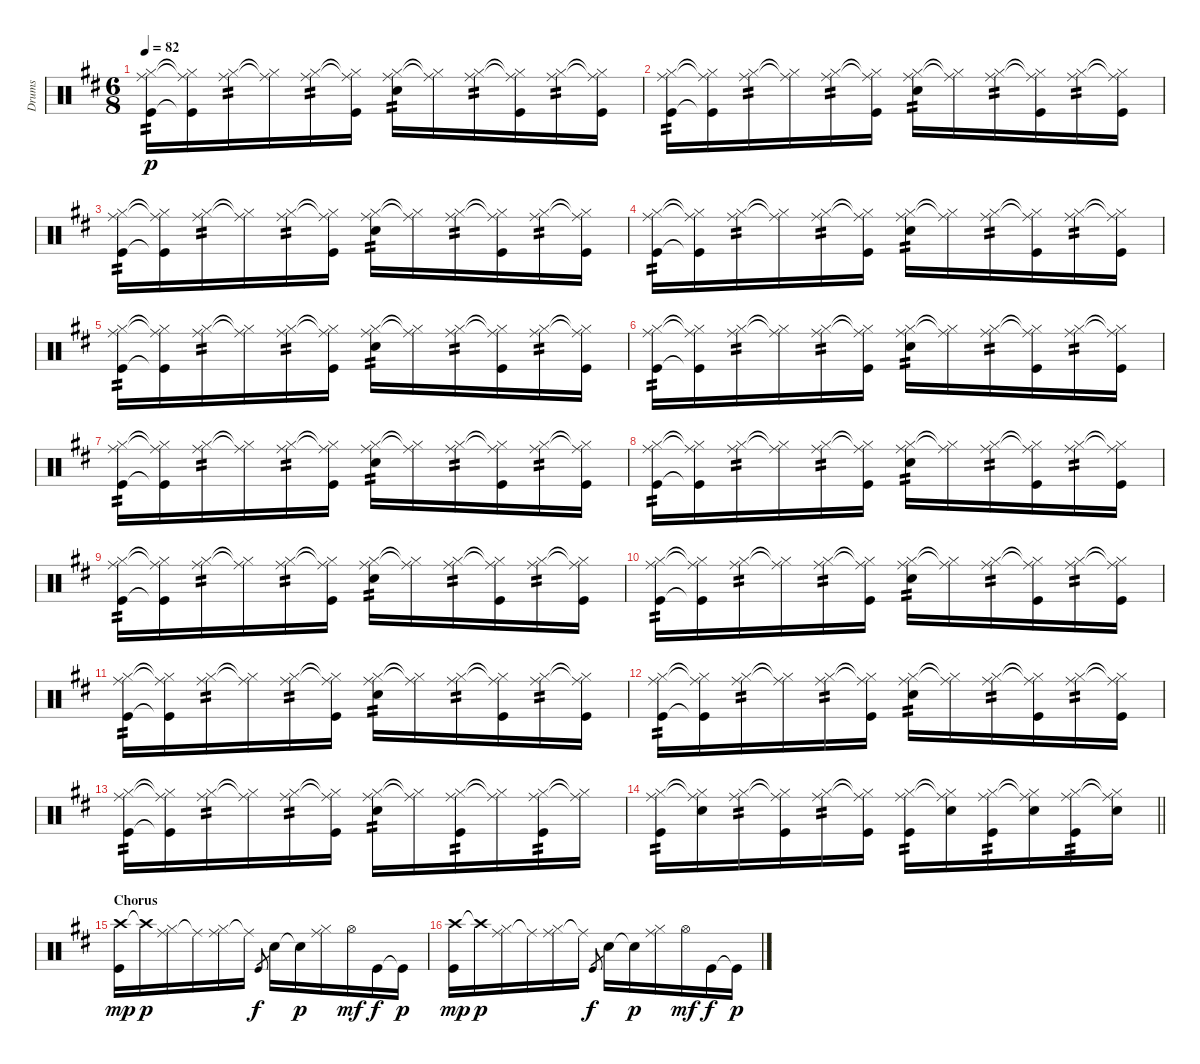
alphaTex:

\track ("Drums" "Drums") {instrument percussion}
\staff {score}
\articulation defaults
\ts (6 8)
\tempo 82
\clef neutral
\ks d
("Ride (middle)" "Hi-Hat (closed)" "Kick (hit)").16{tp 2 dy p} ("Ride (middle)"{t} "Hi-Hat (closed)"{t} "Kick (hit)"{t}).16 ("Ride (middle)" "Hi-Hat (closed)").16{tp 2} ("Ride (middle)"{t} "Hi-Hat (closed)"{t}).16 ("Ride (middle)" "Hi-Hat (closed)").16{tp 2} ("Ride (middle)"{t} "Hi-Hat (closed)"{t} "Kick (hit)").16 ("Ride (middle)" "Hi-Hat (closed)" "Electric Snare (hit)").16{tp 2} ("Ride (middle)"{t} "Hi-Hat (closed)"{t}).16 ("Ride (middle)" "Hi-Hat (closed)").16{tp 2} ("Ride (middle)"{t} "Hi-Hat (closed)"{t} "Kick (hit)").16 ("Ride (middle)" "Hi-Hat (closed)").16{tp 2} ("Ride (middle)"{t} "Hi-Hat (closed)"{t} "Kick (hit)").16 |
("Ride (middle)" "Hi-Hat (closed)" "Kick (hit)").16{tp 2} ("Ride (middle)"{t} "Hi-Hat (closed)"{t} "Kick (hit)"{t}).16 ("Ride (middle)" "Hi-Hat (closed)").16{tp 2} ("Ride (middle)"{t} "Hi-Hat (closed)"{t}).16 ("Ride (middle)" "Hi-Hat (closed)").16{tp 2} ("Ride (middle)"{t} "Hi-Hat (closed)"{t} "Kick (hit)").16 ("Ride (middle)" "Hi-Hat (closed)" "Electric Snare (hit)").16{tp 2} ("Ride (middle)"{t} "Hi-Hat (closed)"{t}).16 ("Ride (middle)" "Hi-Hat (closed)").16{tp 2} ("Ride (middle)"{t} "Hi-Hat (closed)"{t} "Kick (hit)").16 ("Ride (middle)" "Hi-Hat (closed)").16{tp 2} ("Ride (middle)"{t} "Hi-Hat (closed)"{t} "Kick (hit)").16 |
("Ride (middle)" "Hi-Hat (closed)" "Kick (hit)").16{tp 2} ("Ride (middle)"{t} "Hi-Hat (closed)"{t} "Kick (hit)"{t}).16 ("Ride (middle)" "Hi-Hat (closed)").16{tp 2} ("Ride (middle)"{t} "Hi-Hat (closed)"{t}).16 ("Ride (middle)" "Hi-Hat (closed)").16{tp 2} ("Ride (middle)"{t} "Hi-Hat (closed)"{t} "Kick (hit)").16 ("Ride (middle)" "Hi-Hat (closed)" "Electric Snare (hit)").16{tp 2} ("Ride (middle)"{t} "Hi-Hat (closed)"{t}).16 ("Ride (middle)" "Hi-Hat (closed)").16{tp 2} ("Ride (middle)"{t} "Hi-Hat (closed)"{t} "Kick (hit)").16 ("Ride (middle)" "Hi-Hat (closed)").16{tp 2} ("Ride (middle)"{t} "Hi-Hat (closed)"{t} "Kick (hit)").16 |
("Ride (middle)" "Hi-Hat (closed)" "Kick (hit)").16{tp 2} ("Ride (middle)"{t} "Hi-Hat (closed)"{t} "Kick (hit)"{t}).16 ("Ride (middle)" "Hi-Hat (closed)").16{tp 2} ("Ride (middle)"{t} "Hi-Hat (closed)"{t}).16 ("Ride (middle)" "Hi-Hat (closed)").16{tp 2} ("Ride (middle)"{t} "Hi-Hat (closed)"{t} "Kick (hit)").16 ("Ride (middle)" "Hi-Hat (closed)" "Electric Snare (hit)").16{tp 2} ("Ride (middle)"{t} "Hi-Hat (closed)"{t}).16 ("Ride (middle)" "Hi-Hat (closed)").16{tp 2} ("Ride (middle)"{t} "Hi-Hat (closed)"{t} "Kick (hit)").16 ("Ride (middle)" "Hi-Hat (closed)").16{tp 2} ("Ride (middle)"{t} "Hi-Hat (closed)"{t} "Kick (hit)").16 |
("Ride (middle)" "Hi-Hat (closed)" "Kick (hit)").16{tp 2} ("Ride (middle)"{t} "Hi-Hat (closed)"{t} "Kick (hit)"{t}).16 ("Ride (middle)" "Hi-Hat (closed)").16{tp 2} ("Ride (middle)"{t} "Hi-Hat (closed)"{t}).16 ("Ride (middle)" "Hi-Hat (closed)").16{tp 2} ("Ride (middle)"{t} "Hi-Hat (closed)"{t} "Kick (hit)").16 ("Ride (middle)" "Hi-Hat (closed)" "Electric Snare (hit)").16{tp 2} ("Ride (middle)"{t} "Hi-Hat (closed)"{t}).16 ("Ride (middle)" "Hi-Hat (closed)").16{tp 2} ("Ride (middle)"{t} "Hi-Hat (closed)"{t} "Kick (hit)").16 ("Ride (middle)" "Hi-Hat (closed)").16{tp 2} ("Ride (middle)"{t} "Hi-Hat (closed)"{t} "Kick (hit)").16 |
("Ride (middle)" "Hi-Hat (closed)" "Kick (hit)").16{tp 2} ("Ride (middle)"{t} "Hi-Hat (closed)"{t} "Kick (hit)"{t}).16 ("Ride (middle)" "Hi-Hat (closed)").16{tp 2} ("Ride (middle)"{t} "Hi-Hat (closed)"{t}).16 ("Ride (middle)" "Hi-Hat (closed)").16{tp 2} ("Ride (middle)"{t} "Hi-Hat (closed)"{t} "Kick (hit)").16 ("Ride (middle)" "Hi-Hat (closed)" "Electric Snare (hit)").16{tp 2} ("Ride (middle)"{t} "Hi-Hat (closed)"{t}).16 ("Ride (middle)" "Hi-Hat (closed)").16{tp 2} ("Ride (middle)"{t} "Hi-Hat (closed)"{t} "Kick (hit)").16 ("Ride (middle)" "Hi-Hat (closed)").16{tp 2} ("Ride (middle)"{t} "Hi-Hat (closed)"{t} "Kick (hit)").16 |
("Ride (middle)" "Hi-Hat (closed)" "Kick (hit)").16{tp 2} ("Ride (middle)"{t} "Hi-Hat (closed)"{t} "Kick (hit)"{t}).16 ("Ride (middle)" "Hi-Hat (closed)").16{tp 2} ("Ride (middle)"{t} "Hi-Hat (closed)"{t}).16 ("Ride (middle)" "Hi-Hat (closed)").16{tp 2} ("Ride (middle)"{t} "Hi-Hat (closed)"{t} "Kick (hit)").16 ("Ride (middle)" "Hi-Hat (closed)" "Electric Snare (hit)").16{tp 2} ("Ride (middle)"{t} "Hi-Hat (closed)"{t}).16 ("Ride (middle)" "Hi-Hat (closed)").16{tp 2} ("Ride (middle)"{t} "Hi-Hat (closed)"{t} "Kick (hit)").16 ("Ride (middle)" "Hi-Hat (closed)").16{tp 2} ("Ride (middle)"{t} "Hi-Hat (closed)"{t} "Kick (hit)").16 |
("Ride (middle)" "Hi-Hat (closed)" "Kick (hit)").16{tp 2} ("Ride (middle)"{t} "Hi-Hat (closed)"{t} "Kick (hit)"{t}).16 ("Ride (middle)" "Hi-Hat (closed)").16{tp 2} ("Ride (middle)"{t} "Hi-Hat (closed)"{t}).16 ("Ride (middle)" "Hi-Hat (closed)").16{tp 2} ("Ride (middle)"{t} "Hi-Hat (closed)"{t} "Kick (hit)").16 ("Ride (middle)" "Hi-Hat (closed)" "Electric Snare (hit)").16{tp 2} ("Ride (middle)"{t} "Hi-Hat (closed)"{t}).16 ("Ride (middle)" "Hi-Hat (closed)").16{tp 2} ("Ride (middle)"{t} "Hi-Hat (closed)"{t} "Kick (hit)").16 ("Ride (middle)" "Hi-Hat (closed)").16{tp 2} ("Ride (middle)"{t} "Hi-Hat (closed)"{t} "Kick (hit)").16 |
("Ride (middle)" "Hi-Hat (closed)" "Kick (hit)").16{tp 2} ("Ride (middle)"{t} "Hi-Hat (closed)"{t} "Kick (hit)"{t}).16 ("Ride (middle)" "Hi-Hat (closed)").16{tp 2} ("Ride (middle)"{t} "Hi-Hat (closed)"{t}).16 ("Ride (middle)" "Hi-Hat (closed)").16{tp 2} ("Ride (middle)"{t} "Hi-Hat (closed)"{t} "Kick (hit)").16 ("Ride (middle)" "Hi-Hat (closed)" "Electric Snare (hit)").16{tp 2} ("Ride (middle)"{t} "Hi-Hat (closed)"{t}).16 ("Ride (middle)" "Hi-Hat (closed)").16{tp 2} ("Ride (middle)"{t} "Hi-Hat (closed)"{t} "Kick (hit)").16 ("Ride (middle)" "Hi-Hat (closed)").16{tp 2} ("Ride (middle)"{t} "Hi-Hat (closed)"{t} "Kick (hit)").16 |
("Ride (middle)" "Hi-Hat (closed)" "Kick (hit)").16{tp 2} ("Ride (middle)"{t} "Hi-Hat (closed)"{t} "Kick (hit)"{t}).16 ("Ride (middle)" "Hi-Hat (closed)").16{tp 2} ("Ride (middle)"{t} "Hi-Hat (closed)"{t}).16 ("Ride (middle)" "Hi-Hat (closed)").16{tp 2} ("Ride (middle)"{t} "Hi-Hat (closed)"{t} "Kick (hit)").16 ("Ride (middle)" "Hi-Hat (closed)" "Electric Snare (hit)").16{tp 2} ("Ride (middle)"{t} "Hi-Hat (closed)"{t}).16 ("Ride (middle)" "Hi-Hat (closed)").16{tp 2} ("Ride (middle)"{t} "Hi-Hat (closed)"{t} "Kick (hit)").16 ("Ride (middle)" "Hi-Hat (closed)").16{tp 2} ("Ride (middle)"{t} "Hi-Hat (closed)"{t} "Kick (hit)").16 |
("Ride (middle)" "Hi-Hat (closed)" "Kick (hit)").16{tp 2} ("Ride (middle)"{t} "Hi-Hat (closed)"{t} "Kick (hit)"{t}).16 ("Ride (middle)" "Hi-Hat (closed)").16{tp 2} ("Ride (middle)"{t} "Hi-Hat (closed)"{t}).16 ("Ride (middle)" "Hi-Hat (closed)").16{tp 2} ("Ride (middle)"{t} "Hi-Hat (closed)"{t} "Kick (hit)").16 ("Ride (middle)" "Hi-Hat (closed)" "Electric Snare (hit)").16{tp 2} ("Ride (middle)"{t} "Hi-Hat (closed)"{t}).16 ("Ride (middle)" "Hi-Hat (closed)").16{tp 2} ("Ride (middle)"{t} "Hi-Hat (closed)"{t} "Kick (hit)").16 ("Ride (middle)" "Hi-Hat (closed)").16{tp 2} ("Ride (middle)"{t} "Hi-Hat (closed)"{t} "Kick (hit)").16 |
("Ride (middle)" "Hi-Hat (closed)" "Kick (hit)").16{tp 2} ("Ride (middle)"{t} "Hi-Hat (closed)"{t} "Kick (hit)"{t}).16 ("Ride (middle)" "Hi-Hat (closed)").16{tp 2} ("Ride (middle)"{t} "Hi-Hat (closed)"{t}).16 ("Ride (middle)" "Hi-Hat (closed)").16{tp 2} ("Ride (middle)"{t} "Hi-Hat (closed)"{t} "Kick (hit)").16 ("Ride (middle)" "Hi-Hat (closed)" "Electric Snare (hit)").16{tp 2} ("Ride (middle)"{t} "Hi-Hat (closed)"{t}).16 ("Ride (middle)" "Hi-Hat (closed)").16{tp 2} ("Ride (middle)"{t} "Hi-Hat (closed)"{t} "Kick (hit)").16 ("Ride (middle)" "Hi-Hat (closed)").16{tp 2} ("Ride (middle)"{t} "Hi-Hat (closed)"{t} "Kick (hit)").16 |
("Ride (middle)" "Hi-Hat (closed)" "Kick (hit)").16{tp 2} ("Ride (middle)"{t} "Hi-Hat (closed)"{t} "Kick (hit)"{t}).16 ("Ride (middle)" "Hi-Hat (closed)").16{tp 2} ("Ride (middle)"{t} "Hi-Hat (closed)"{t}).16 ("Ride (middle)" "Hi-Hat (closed)").16{tp 2} ("Ride (middle)"{t} "Hi-Hat (closed)"{t} "Kick (hit)").16 ("Ride (middle)" "Hi-Hat (closed)" "Electric Snare (hit)").16{tp 2} ("Ride (middle)"{t} "Hi-Hat (closed)"{t}).16 ("Ride (middle)" "Hi-Hat (closed)" "Kick (hit)").16{tp 2} ("Ride (middle)"{t} "Hi-Hat (closed)"{t}).16 ("Ride (middle)" "Hi-Hat (closed)" "Kick (hit)").16{tp 2} ("Ride (middle)"{t} "Hi-Hat (closed)"{t}).16 |
\barLineRight lightlight
("Ride (middle)" "Hi-Hat (closed)" "Kick (hit)").16{tp 2} ("Ride (middle)"{t} "Hi-Hat (closed)"{t} "Electric Snare (hit)").16 ("Ride (middle)" "Hi-Hat (closed)").16{tp 2} ("Ride (middle)"{t} "Hi-Hat (closed)"{t} "Kick (hit)").16 ("Ride (middle)" "Hi-Hat (closed)").16{tp 2} ("Ride (middle)"{t} "Hi-Hat (closed)"{t} "Kick (hit)").16 ("Ride (middle)" "Hi-Hat (closed)" "Kick (hit)").16{tp 2} ("Ride (middle)"{t} "Hi-Hat (closed)"{t} "Electric Snare (hit)").16 ("Ride (middle)" "Hi-Hat (closed)" "Kick (hit)").16{tp 2} ("Ride (middle)"{t} "Hi-Hat (closed)"{t} "Electric Snare (hit)").16 ("Ride (middle)" "Hi-Hat (closed)" "Kick (hit)").16{tp 2} ("Ride (middle)"{t} "Hi-Hat (closed)"{t} "Electric Snare (hit)").16 |
\section ("" "Chorus")
("Crash high (hit)" "Kick (hit)").16{dy mp} "Crash high (hit)"{t}.16{dy p} ("Ride (middle)" "Hi-Hat (closed)").16 "Ride (middle)"{t}.16 ("Ride (middle)" "Hi-Hat (closed)").16 "Ride (middle)"{t}.16 "Kick (hit)".8{gr dy f} "Electric Snare (hit)".16 "Electric Snare (hit)"{t}.16{dy p} ("Ride (middle)" "Hi-Hat (closed)").16 "Hi-Hat (open)".16{dy mf} "Kick (hit)".16{dy f} "Kick (hit)"{t}.16{dy p} |
("Crash high (hit)" "Kick (hit)").16{dy mp} "Crash high (hit)"{t}.16{dy p} ("Ride (middle)" "Hi-Hat (closed)").16 "Ride (middle)"{t}.16 ("Ride (middle)" "Hi-Hat (closed)").16 "Ride (middle)"{t}.16 "Kick (hit)".8{gr dy f} "Electric Snare (hit)".16 "Electric Snare (hit)"{t}.16{dy p} ("Ride (middle)" "Hi-Hat (closed)").16 "Hi-Hat (open)".16{dy mf} "Kick (hit)".16{dy f} "Kick (hit)"{t}.16{dy p}
